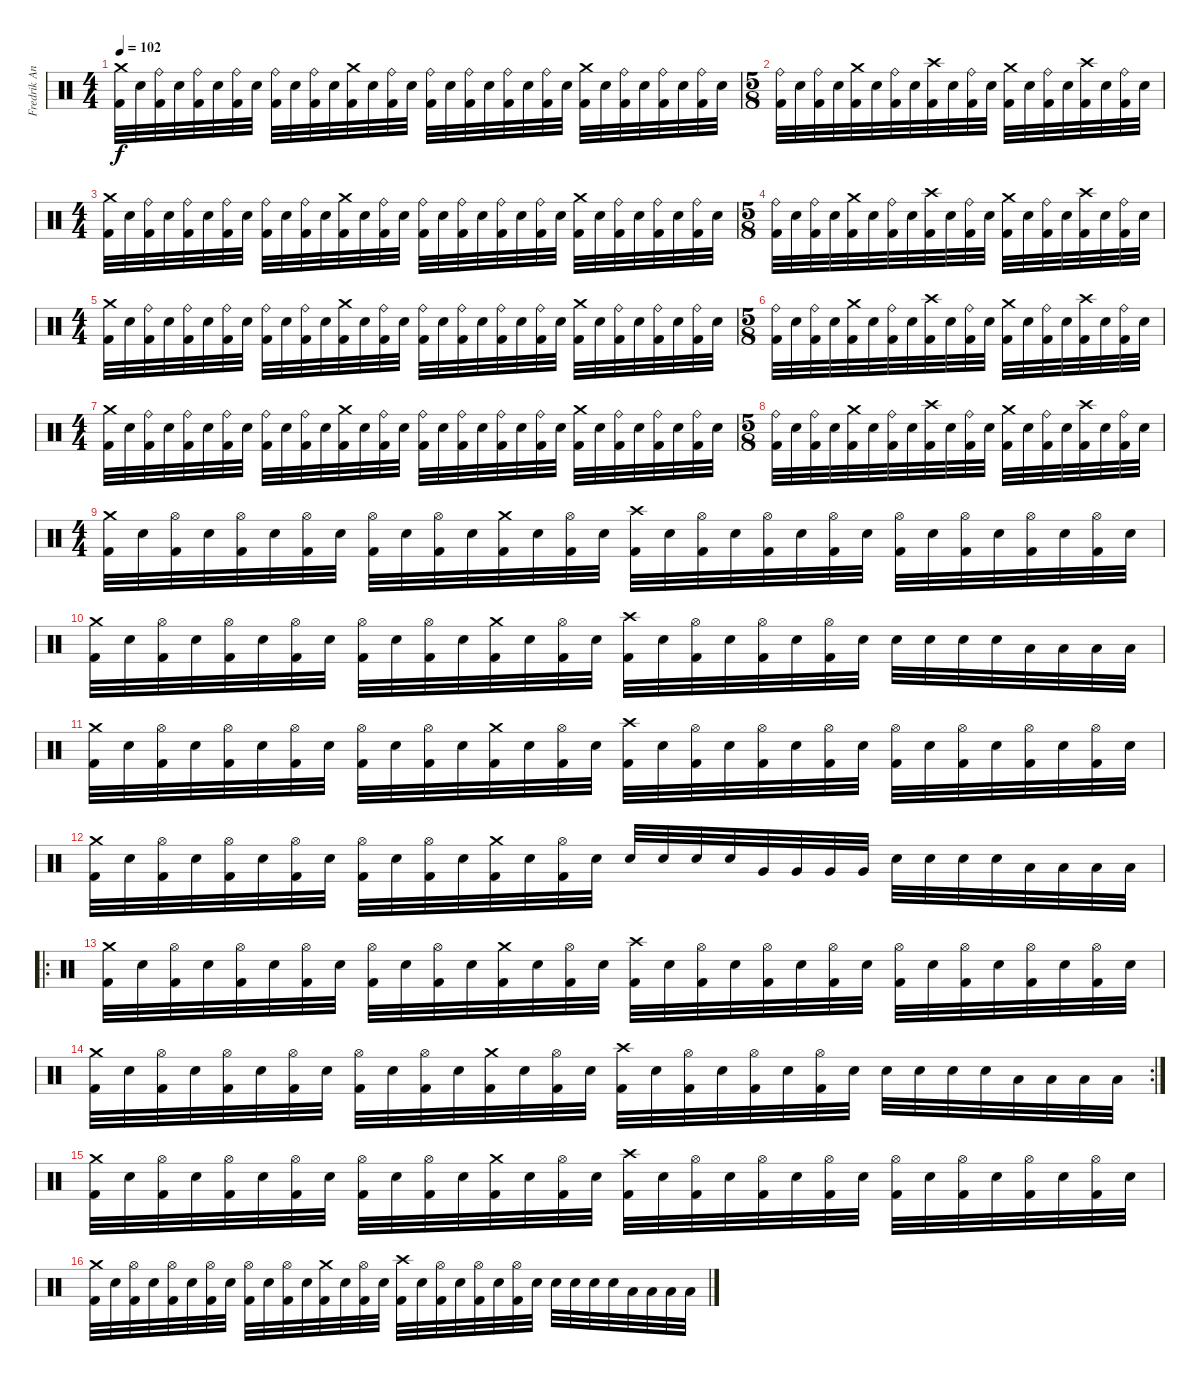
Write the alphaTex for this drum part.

\track ("Fredrik Andersson" "Fredrik An") {instrument percussion}
\staff {score}
\articulation defaults
\ts (4 4)
\tempo 102
\clef neutral
\ks c
("Crash medium (hit)" "Kick (hit) 2").32{dy f} "Electric Snare (hit)".32 ("Ride (bell)" "Kick (hit) 2").32 "Electric Snare (hit)".32 ("Ride (bell)" "Kick (hit) 2").32 "Electric Snare (hit)".32 ("Ride (bell)" "Kick (hit) 2").32 "Electric Snare (hit)".32 ("Ride (bell)" "Kick (hit) 2").32 "Electric Snare (hit)".32 ("Ride (bell)" "Kick (hit) 2").32 "Electric Snare (hit)".32 ("Crash medium (hit)" "Kick (hit) 2").32 "Electric Snare (hit)".32 ("Ride (bell)" "Kick (hit) 2").32 "Electric Snare (hit)".32 ("Ride (bell)" "Kick (hit) 2").32 "Electric Snare (hit)".32 ("Ride (bell)" "Kick (hit) 2").32 "Electric Snare (hit)".32 ("Ride (bell)" "Kick (hit) 2").32 "Electric Snare (hit)".32 ("Ride (bell)" "Kick (hit) 2").32 "Electric Snare (hit)".32 ("Crash medium (hit)" "Kick (hit) 2").32 "Electric Snare (hit)".32 ("Ride (bell)" "Kick (hit) 2").32 "Electric Snare (hit)".32 ("Ride (bell)" "Kick (hit) 2").32 "Electric Snare (hit)".32 ("Ride (bell)" "Kick (hit) 2").32 "Electric Snare (hit)".32 |
\ts (5 8)
("Ride (bell)" "Kick (hit) 2").32 "Electric Snare (hit)".32 ("Ride (bell)" "Kick (hit) 2").32 "Electric Snare (hit)".32 ("Crash medium (hit)" "Kick (hit) 2").32 "Electric Snare (hit)".32 ("Ride (bell)" "Kick (hit) 2").32 "Electric Snare (hit)".32 ("Crash high (hit)" "Kick (hit) 2").32 "Electric Snare (hit)".32 ("Ride (bell)" "Kick (hit) 2").32 "Electric Snare (hit)".32 ("Crash medium (hit)" "Kick (hit) 2").32 "Electric Snare (hit)".32 ("Ride (bell)" "Kick (hit) 2").32 "Electric Snare (hit)".32 ("Crash high (hit)" "Kick (hit) 2").32 "Electric Snare (hit)".32 ("Ride (bell)" "Kick (hit) 2").32 "Electric Snare (hit)".32 |
\ts (4 4)
("Crash medium (hit)" "Kick (hit) 2").32 "Electric Snare (hit)".32 ("Ride (bell)" "Kick (hit) 2").32 "Electric Snare (hit)".32 ("Ride (bell)" "Kick (hit) 2").32 "Electric Snare (hit)".32 ("Ride (bell)" "Kick (hit) 2").32 "Electric Snare (hit)".32 ("Ride (bell)" "Kick (hit) 2").32 "Electric Snare (hit)".32 ("Ride (bell)" "Kick (hit) 2").32 "Electric Snare (hit)".32 ("Crash medium (hit)" "Kick (hit) 2").32 "Electric Snare (hit)".32 ("Ride (bell)" "Kick (hit) 2").32 "Electric Snare (hit)".32 ("Ride (bell)" "Kick (hit) 2").32 "Electric Snare (hit)".32 ("Ride (bell)" "Kick (hit) 2").32 "Electric Snare (hit)".32 ("Ride (bell)" "Kick (hit) 2").32 "Electric Snare (hit)".32 ("Ride (bell)" "Kick (hit) 2").32 "Electric Snare (hit)".32 ("Crash medium (hit)" "Kick (hit) 2").32 "Electric Snare (hit)".32 ("Ride (bell)" "Kick (hit) 2").32 "Electric Snare (hit)".32 ("Ride (bell)" "Kick (hit) 2").32 "Electric Snare (hit)".32 ("Ride (bell)" "Kick (hit) 2").32 "Electric Snare (hit)".32 |
\ts (5 8)
("Ride (bell)" "Kick (hit) 2").32 "Electric Snare (hit)".32 ("Ride (bell)" "Kick (hit) 2").32 "Electric Snare (hit)".32 ("Crash medium (hit)" "Kick (hit) 2").32 "Electric Snare (hit)".32 ("Ride (bell)" "Kick (hit) 2").32 "Electric Snare (hit)".32 ("Crash high (hit)" "Kick (hit) 2").32 "Electric Snare (hit)".32 ("Ride (bell)" "Kick (hit) 2").32 "Electric Snare (hit)".32 ("Crash medium (hit)" "Kick (hit) 2").32 "Electric Snare (hit)".32 ("Ride (bell)" "Kick (hit) 2").32 "Electric Snare (hit)".32 ("Crash high (hit)" "Kick (hit) 2").32 "Electric Snare (hit)".32 ("Ride (bell)" "Kick (hit) 2").32 "Electric Snare (hit)".32 |
\ts (4 4)
("Crash medium (hit)" "Kick (hit) 2").32 "Electric Snare (hit)".32 ("Ride (bell)" "Kick (hit) 2").32 "Electric Snare (hit)".32 ("Ride (bell)" "Kick (hit) 2").32 "Electric Snare (hit)".32 ("Ride (bell)" "Kick (hit) 2").32 "Electric Snare (hit)".32 ("Ride (bell)" "Kick (hit) 2").32 "Electric Snare (hit)".32 ("Ride (bell)" "Kick (hit) 2").32 "Electric Snare (hit)".32 ("Crash medium (hit)" "Kick (hit) 2").32 "Electric Snare (hit)".32 ("Ride (bell)" "Kick (hit) 2").32 "Electric Snare (hit)".32 ("Ride (bell)" "Kick (hit) 2").32 "Electric Snare (hit)".32 ("Ride (bell)" "Kick (hit) 2").32 "Electric Snare (hit)".32 ("Ride (bell)" "Kick (hit) 2").32 "Electric Snare (hit)".32 ("Ride (bell)" "Kick (hit) 2").32 "Electric Snare (hit)".32 ("Crash medium (hit)" "Kick (hit) 2").32 "Electric Snare (hit)".32 ("Ride (bell)" "Kick (hit) 2").32 "Electric Snare (hit)".32 ("Ride (bell)" "Kick (hit) 2").32 "Electric Snare (hit)".32 ("Ride (bell)" "Kick (hit) 2").32 "Electric Snare (hit)".32 |
\ts (5 8)
("Ride (bell)" "Kick (hit) 2").32 "Electric Snare (hit)".32 ("Ride (bell)" "Kick (hit) 2").32 "Electric Snare (hit)".32 ("Crash medium (hit)" "Kick (hit) 2").32 "Electric Snare (hit)".32 ("Ride (bell)" "Kick (hit) 2").32 "Electric Snare (hit)".32 ("Crash high (hit)" "Kick (hit) 2").32 "Electric Snare (hit)".32 ("Ride (bell)" "Kick (hit) 2").32 "Electric Snare (hit)".32 ("Crash medium (hit)" "Kick (hit) 2").32 "Electric Snare (hit)".32 ("Ride (bell)" "Kick (hit) 2").32 "Electric Snare (hit)".32 ("Crash high (hit)" "Kick (hit) 2").32 "Electric Snare (hit)".32 ("Ride (bell)" "Kick (hit) 2").32 "Electric Snare (hit)".32 |
\ts (4 4)
("Crash medium (hit)" "Kick (hit) 2").32 "Electric Snare (hit)".32 ("Ride (bell)" "Kick (hit) 2").32 "Electric Snare (hit)".32 ("Ride (bell)" "Kick (hit) 2").32 "Electric Snare (hit)".32 ("Ride (bell)" "Kick (hit) 2").32 "Electric Snare (hit)".32 ("Ride (bell)" "Kick (hit) 2").32 "Electric Snare (hit)".32 ("Ride (bell)" "Kick (hit) 2").32 "Electric Snare (hit)".32 ("Crash medium (hit)" "Kick (hit) 2").32 "Electric Snare (hit)".32 ("Ride (bell)" "Kick (hit) 2").32 "Electric Snare (hit)".32 ("Ride (bell)" "Kick (hit) 2").32 "Electric Snare (hit)".32 ("Ride (bell)" "Kick (hit) 2").32 "Electric Snare (hit)".32 ("Ride (bell)" "Kick (hit) 2").32 "Electric Snare (hit)".32 ("Ride (bell)" "Kick (hit) 2").32 "Electric Snare (hit)".32 ("Crash medium (hit)" "Kick (hit) 2").32 "Electric Snare (hit)".32 ("Ride (bell)" "Kick (hit) 2").32 "Electric Snare (hit)".32 ("Ride (bell)" "Kick (hit) 2").32 "Electric Snare (hit)".32 ("Ride (bell)" "Kick (hit) 2").32 "Electric Snare (hit)".32 |
\ts (5 8)
("Ride (bell)" "Kick (hit) 2").32 "Electric Snare (hit)".32 ("Ride (bell)" "Kick (hit) 2").32 "Electric Snare (hit)".32 ("Crash medium (hit)" "Kick (hit) 2").32 "Electric Snare (hit)".32 ("Ride (bell)" "Kick (hit) 2").32 "Electric Snare (hit)".32 ("Crash high (hit)" "Kick (hit) 2").32 "Electric Snare (hit)".32 ("Ride (bell)" "Kick (hit) 2").32 "Electric Snare (hit)".32 ("Crash medium (hit)" "Kick (hit) 2").32 "Electric Snare (hit)".32 ("Ride (bell)" "Kick (hit) 2").32 "Electric Snare (hit)".32 ("Crash high (hit)" "Kick (hit) 2").32 "Electric Snare (hit)".32 ("Ride (bell)" "Kick (hit) 2").32 "Electric Snare (hit)".32 |
\ts (4 4)
("Crash medium (hit)" "Kick (hit) 2").32 "Electric Snare (hit)".32 ("Hi-Hat (open)" "Kick (hit) 2").32 "Electric Snare (hit)".32 ("Hi-Hat (open)" "Kick (hit) 2").32 "Electric Snare (hit)".32 ("Hi-Hat (open)" "Kick (hit) 2").32 "Electric Snare (hit)".32 ("Hi-Hat (open)" "Kick (hit) 2").32 "Electric Snare (hit)".32 ("Hi-Hat (open)" "Kick (hit) 2").32 "Electric Snare (hit)".32 ("Crash medium (hit)" "Kick (hit) 2").32 "Electric Snare (hit)".32 ("Hi-Hat (open)" "Kick (hit) 2").32 "Electric Snare (hit)".32 ("Crash high (hit)" "Kick (hit) 2").32 "Electric Snare (hit)".32 ("Hi-Hat (open)" "Kick (hit) 2").32 "Electric Snare (hit)".32 ("Hi-Hat (open)" "Kick (hit) 2").32 "Electric Snare (hit)".32 ("Hi-Hat (open)" "Kick (hit) 2").32 "Electric Snare (hit)".32 ("Hi-Hat (open)" "Kick (hit) 2").32 "Electric Snare (hit)".32 ("Hi-Hat (open)" "Kick (hit) 2").32 "Electric Snare (hit)".32 ("Hi-Hat (open)" "Kick (hit) 2").32 "Electric Snare (hit)".32 ("Hi-Hat (open)" "Kick (hit) 2").32 "Electric Snare (hit)".32 |
("Crash medium (hit)" "Kick (hit) 2").32 "Electric Snare (hit)".32 ("Hi-Hat (open)" "Kick (hit) 2").32 "Electric Snare (hit)".32 ("Hi-Hat (open)" "Kick (hit) 2").32 "Electric Snare (hit)".32 ("Hi-Hat (open)" "Kick (hit) 2").32 "Electric Snare (hit)".32 ("Hi-Hat (open)" "Kick (hit) 2").32 "Electric Snare (hit)".32 ("Hi-Hat (open)" "Kick (hit) 2").32 "Electric Snare (hit)".32 ("Crash medium (hit)" "Kick (hit) 2").32 "Electric Snare (hit)".32 ("Hi-Hat (open)" "Kick (hit) 2").32 "Electric Snare (hit)".32 ("Crash high (hit)" "Kick (hit) 2").32 "Electric Snare (hit)".32 ("Hi-Hat (open)" "Kick (hit) 2").32 "Electric Snare (hit)".32 ("Hi-Hat (open)" "Kick (hit) 2").32 "Electric Snare (hit)".32 ("Hi-Hat (open)" "Kick (hit) 2").32 "Electric Snare (hit)".32 "Electric Snare (hit)".32 "Electric Snare (hit)".32 "Electric Snare (hit)".32 "Electric Snare (hit)".32 "Low Tom (hit)".32 "Low Tom (hit)".32 "Low Tom (hit)".32 "Low Tom (hit)".32 |
("Crash medium (hit)" "Kick (hit) 2").32 "Electric Snare (hit)".32 ("Hi-Hat (open)" "Kick (hit) 2").32 "Electric Snare (hit)".32 ("Hi-Hat (open)" "Kick (hit) 2").32 "Electric Snare (hit)".32 ("Hi-Hat (open)" "Kick (hit) 2").32 "Electric Snare (hit)".32 ("Hi-Hat (open)" "Kick (hit) 2").32 "Electric Snare (hit)".32 ("Hi-Hat (open)" "Kick (hit) 2").32 "Electric Snare (hit)".32 ("Crash medium (hit)" "Kick (hit) 2").32 "Electric Snare (hit)".32 ("Hi-Hat (open)" "Kick (hit) 2").32 "Electric Snare (hit)".32 ("Crash high (hit)" "Kick (hit) 2").32 "Electric Snare (hit)".32 ("Hi-Hat (open)" "Kick (hit) 2").32 "Electric Snare (hit)".32 ("Hi-Hat (open)" "Kick (hit) 2").32 "Electric Snare (hit)".32 ("Hi-Hat (open)" "Kick (hit) 2").32 "Electric Snare (hit)".32 ("Hi-Hat (open)" "Kick (hit) 2").32 "Electric Snare (hit)".32 ("Hi-Hat (open)" "Kick (hit) 2").32 "Electric Snare (hit)".32 ("Hi-Hat (open)" "Kick (hit) 2").32 "Electric Snare (hit)".32 ("Hi-Hat (open)" "Kick (hit) 2").32 "Electric Snare (hit)".32 |
("Crash medium (hit)" "Kick (hit) 2").32 "Electric Snare (hit)".32 ("Hi-Hat (open)" "Kick (hit) 2").32 "Electric Snare (hit)".32 ("Hi-Hat (open)" "Kick (hit) 2").32 "Electric Snare (hit)".32 ("Hi-Hat (open)" "Kick (hit) 2").32 "Electric Snare (hit)".32 ("Hi-Hat (open)" "Kick (hit) 2").32 "Electric Snare (hit)".32 ("Hi-Hat (open)" "Kick (hit) 2").32 "Electric Snare (hit)".32 ("Crash medium (hit)" "Kick (hit) 2").32 "Electric Snare (hit)".32 ("Hi-Hat (open)" "Kick (hit) 2").32 "Electric Snare (hit)".32 "Electric Snare (hit)".32 "Electric Snare (hit)".32 "Electric Snare (hit)".32 "Electric Snare (hit)".32 "Very Low Tom (hit)".32 "Very Low Tom (hit)".32 "Very Low Tom (hit)".32 "Very Low Tom (hit)".32 "Electric Snare (hit)".32 "Electric Snare (hit)".32 "Electric Snare (hit)".32 "Electric Snare (hit)".32 "Low Tom (hit)".32 "Low Tom (hit)".32 "Low Tom (hit)".32 "Low Tom (hit)".32 |
\ro
("Crash medium (hit)" "Kick (hit) 2").32 "Electric Snare (hit)".32 ("Hi-Hat (open)" "Kick (hit) 2").32 "Electric Snare (hit)".32 ("Hi-Hat (open)" "Kick (hit) 2").32 "Electric Snare (hit)".32 ("Hi-Hat (open)" "Kick (hit) 2").32 "Electric Snare (hit)".32 ("Hi-Hat (open)" "Kick (hit) 2").32 "Electric Snare (hit)".32 ("Hi-Hat (open)" "Kick (hit) 2").32 "Electric Snare (hit)".32 ("Crash medium (hit)" "Kick (hit) 2").32 "Electric Snare (hit)".32 ("Hi-Hat (open)" "Kick (hit) 2").32 "Electric Snare (hit)".32 ("Crash high (hit)" "Kick (hit) 2").32 "Electric Snare (hit)".32 ("Hi-Hat (open)" "Kick (hit) 2").32 "Electric Snare (hit)".32 ("Hi-Hat (open)" "Kick (hit) 2").32 "Electric Snare (hit)".32 ("Hi-Hat (open)" "Kick (hit) 2").32 "Electric Snare (hit)".32 ("Hi-Hat (open)" "Kick (hit) 2").32 "Electric Snare (hit)".32 ("Hi-Hat (open)" "Kick (hit) 2").32 "Electric Snare (hit)".32 ("Hi-Hat (open)" "Kick (hit) 2").32 "Electric Snare (hit)".32 ("Hi-Hat (open)" "Kick (hit) 2").32 "Electric Snare (hit)".32 |
\rc 2
("Crash medium (hit)" "Kick (hit) 2").32 "Electric Snare (hit)".32 ("Hi-Hat (open)" "Kick (hit) 2").32 "Electric Snare (hit)".32 ("Hi-Hat (open)" "Kick (hit) 2").32 "Electric Snare (hit)".32 ("Hi-Hat (open)" "Kick (hit) 2").32 "Electric Snare (hit)".32 ("Hi-Hat (open)" "Kick (hit) 2").32 "Electric Snare (hit)".32 ("Hi-Hat (open)" "Kick (hit) 2").32 "Electric Snare (hit)".32 ("Crash medium (hit)" "Kick (hit) 2").32 "Electric Snare (hit)".32 ("Hi-Hat (open)" "Kick (hit) 2").32 "Electric Snare (hit)".32 ("Crash high (hit)" "Kick (hit) 2").32 "Electric Snare (hit)".32 ("Hi-Hat (open)" "Kick (hit) 2").32 "Electric Snare (hit)".32 ("Hi-Hat (open)" "Kick (hit) 2").32 "Electric Snare (hit)".32 ("Hi-Hat (open)" "Kick (hit) 2").32 "Electric Snare (hit)".32 "Electric Snare (hit)".32 "Electric Snare (hit)".32 "Electric Snare (hit)".32 "Electric Snare (hit)".32 "Low Tom (hit)".32 "Low Tom (hit)".32 "Low Tom (hit)".32 "Low Tom (hit)".32 |
("Crash medium (hit)" "Kick (hit) 2").32 "Electric Snare (hit)".32 ("Hi-Hat (open)" "Kick (hit) 2").32 "Electric Snare (hit)".32 ("Hi-Hat (open)" "Kick (hit) 2").32 "Electric Snare (hit)".32 ("Hi-Hat (open)" "Kick (hit) 2").32 "Electric Snare (hit)".32 ("Hi-Hat (open)" "Kick (hit) 2").32 "Electric Snare (hit)".32 ("Hi-Hat (open)" "Kick (hit) 2").32 "Electric Snare (hit)".32 ("Crash medium (hit)" "Kick (hit) 2").32 "Electric Snare (hit)".32 ("Hi-Hat (open)" "Kick (hit) 2").32 "Electric Snare (hit)".32 ("Crash high (hit)" "Kick (hit) 2").32 "Electric Snare (hit)".32 ("Hi-Hat (open)" "Kick (hit) 2").32 "Electric Snare (hit)".32 ("Hi-Hat (open)" "Kick (hit) 2").32 "Electric Snare (hit)".32 ("Hi-Hat (open)" "Kick (hit) 2").32 "Electric Snare (hit)".32 ("Hi-Hat (open)" "Kick (hit) 2").32 "Electric Snare (hit)".32 ("Hi-Hat (open)" "Kick (hit) 2").32 "Electric Snare (hit)".32 ("Hi-Hat (open)" "Kick (hit) 2").32 "Electric Snare (hit)".32 ("Hi-Hat (open)" "Kick (hit) 2").32 "Electric Snare (hit)".32 |
("Crash medium (hit)" "Kick (hit) 2").32 "Electric Snare (hit)".32 ("Hi-Hat (open)" "Kick (hit) 2").32 "Electric Snare (hit)".32 ("Hi-Hat (open)" "Kick (hit) 2").32 "Electric Snare (hit)".32 ("Hi-Hat (open)" "Kick (hit) 2").32 "Electric Snare (hit)".32 ("Hi-Hat (open)" "Kick (hit) 2").32 "Electric Snare (hit)".32 ("Hi-Hat (open)" "Kick (hit) 2").32 "Electric Snare (hit)".32 ("Crash medium (hit)" "Kick (hit) 2").32 "Electric Snare (hit)".32 ("Hi-Hat (open)" "Kick (hit) 2").32 "Electric Snare (hit)".32 ("Crash high (hit)" "Kick (hit) 2").32 "Electric Snare (hit)".32 ("Hi-Hat (open)" "Kick (hit) 2").32 "Electric Snare (hit)".32 ("Hi-Hat (open)" "Kick (hit) 2").32 "Electric Snare (hit)".32 ("Hi-Hat (open)" "Kick (hit) 2").32 "Electric Snare (hit)".32 "Electric Snare (hit)".32 "Electric Snare (hit)".32 "Electric Snare (hit)".32 "Electric Snare (hit)".32 "Low Tom (hit)".32 "Low Tom (hit)".32 "Low Tom (hit)".32 "Low Tom (hit)".32
